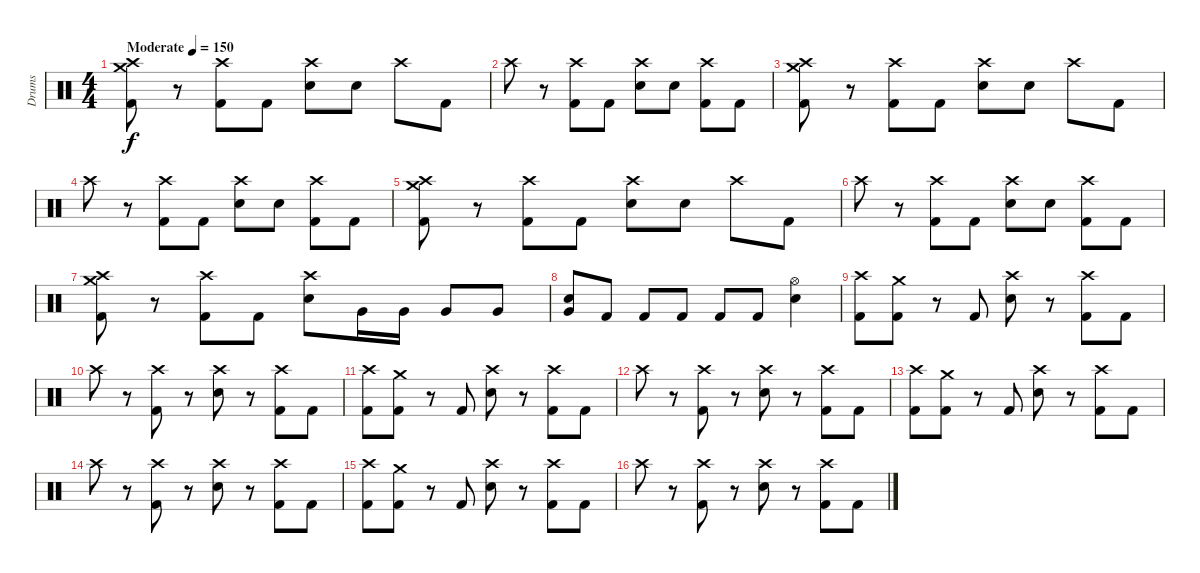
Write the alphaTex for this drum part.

\track ("Drums" "Drums") {instrument percussion}
\staff {score}
\articulation defaults
\ts (4 4)
\tempo (150 "Moderate")
\clef neutral
\ks c
("Crash high (hit)" "Crash medium (hit)" "Kick (hit) 2").8{dy f} r.8 ("Crash high (hit)" "Kick (hit) 2").8 "Kick (hit) 2".8 ("Crash high (hit)" "Electric Snare (hit)").8 "Electric Snare (hit)".8 "Crash high (hit)".8 "Kick (hit) 2".8 |
"Crash high (hit)".8 r.8 ("Crash high (hit)" "Kick (hit) 2").8 "Kick (hit) 2".8 ("Crash high (hit)" "Electric Snare (hit)").8 "Electric Snare (hit)".8 ("Crash high (hit)" "Kick (hit) 2").8 "Kick (hit) 2".8 |
("Crash high (hit)" "Crash medium (hit)" "Kick (hit) 2").8 r.8 ("Crash high (hit)" "Kick (hit) 2").8 "Kick (hit) 2".8 ("Crash high (hit)" "Electric Snare (hit)").8 "Electric Snare (hit)".8 "Crash high (hit)".8 "Kick (hit) 2".8 |
"Crash high (hit)".8 r.8 ("Crash high (hit)" "Kick (hit) 2").8 "Kick (hit) 2".8 ("Crash high (hit)" "Electric Snare (hit)").8 "Electric Snare (hit)".8 ("Crash high (hit)" "Kick (hit) 2").8 "Kick (hit) 2".8 |
("Crash high (hit)" "Crash medium (hit)" "Kick (hit) 2").8 r.8 ("Crash high (hit)" "Kick (hit) 2").8 "Kick (hit) 2".8 ("Crash high (hit)" "Electric Snare (hit)").8 "Electric Snare (hit)".8 "Crash high (hit)".8 "Kick (hit) 2".8 |
"Crash high (hit)".8 r.8 ("Crash high (hit)" "Kick (hit) 2").8 "Kick (hit) 2".8 ("Crash high (hit)" "Electric Snare (hit)").8 "Electric Snare (hit)".8 ("Crash high (hit)" "Kick (hit) 2").8 "Kick (hit) 2".8 |
("Crash high (hit)" "Crash medium (hit)" "Kick (hit) 2").8 r.8 ("Crash high (hit)" "Kick (hit) 2").8 "Kick (hit) 2".8 ("Crash high (hit)" "Electric Snare (hit)").8 "Very Low Tom (hit)".16 "Very Low Tom (hit)".16 "Very Low Tom (hit)".8 "Very Low Tom (hit)".8 |
("Very Low Tom (hit)" "Electric Snare (hit)").8 "Kick (hit) 2".8 "Kick (hit) 2".8 "Kick (hit) 2".8 "Kick (hit) 2".8 "Kick (hit) 2".8 ("Hi-Hat (open)" "Electric Snare (hit)").4 |
("Crash high (hit)" "Kick (hit) 2").8 ("Crash medium (hit)" "Kick (hit) 2").8 r.8 "Kick (hit) 2".8 ("Crash high (hit)" "Electric Snare (hit)").8 r.8 ("Crash high (hit)" "Kick (hit) 2").8 "Kick (hit) 2".8 |
"Crash high (hit)".8 r.8 ("Crash high (hit)" "Kick (hit) 2").8 r.8 ("Crash high (hit)" "Electric Snare (hit)").8 r.8 ("Crash high (hit)" "Kick (hit) 2").8 "Kick (hit) 2".8 |
("Crash high (hit)" "Kick (hit) 2").8 ("Crash medium (hit)" "Kick (hit) 2").8 r.8 "Kick (hit) 2".8 ("Crash high (hit)" "Electric Snare (hit)").8 r.8 ("Crash high (hit)" "Kick (hit) 2").8 "Kick (hit) 2".8 |
"Crash high (hit)".8 r.8 ("Crash high (hit)" "Kick (hit) 2").8 r.8 ("Crash high (hit)" "Electric Snare (hit)").8 r.8 ("Crash high (hit)" "Kick (hit) 2").8 "Kick (hit) 2".8 |
("Crash high (hit)" "Kick (hit) 2").8 ("Crash medium (hit)" "Kick (hit) 2").8 r.8 "Kick (hit) 2".8 ("Crash high (hit)" "Electric Snare (hit)").8 r.8 ("Crash high (hit)" "Kick (hit) 2").8 "Kick (hit) 2".8 |
"Crash high (hit)".8 r.8 ("Crash high (hit)" "Kick (hit) 2").8 r.8 ("Crash high (hit)" "Electric Snare (hit)").8 r.8 ("Crash high (hit)" "Kick (hit) 2").8 "Kick (hit) 2".8 |
("Crash high (hit)" "Kick (hit) 2").8 ("Crash medium (hit)" "Kick (hit) 2").8 r.8 "Kick (hit) 2".8 ("Crash high (hit)" "Electric Snare (hit)").8 r.8 ("Crash high (hit)" "Kick (hit) 2").8 "Kick (hit) 2".8 |
"Crash high (hit)".8 r.8 ("Crash high (hit)" "Kick (hit) 2").8 r.8 ("Crash high (hit)" "Electric Snare (hit)").8 r.8 ("Crash high (hit)" "Kick (hit) 2").8 "Kick (hit) 2".8
